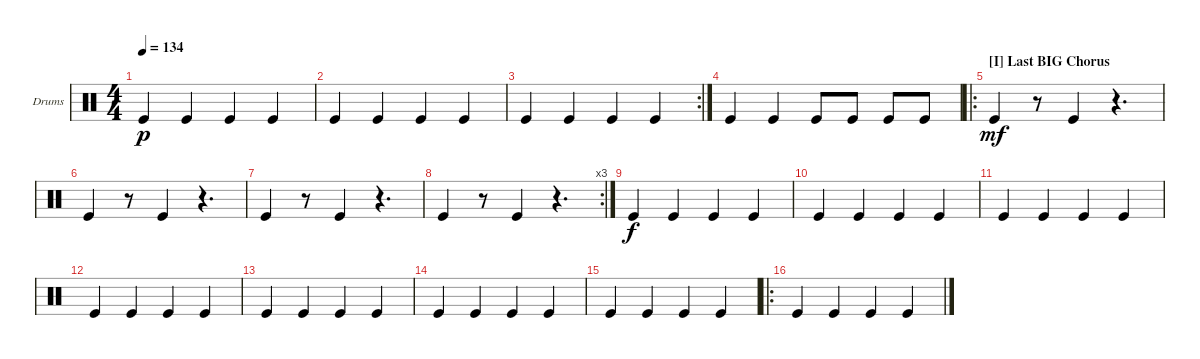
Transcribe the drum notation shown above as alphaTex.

\defaultSystemsLayout 4
\bracketExtendMode groupsimilarinstruments
\firstSystemTrackNameOrientation horizontal
\otherSystemsTrackNameOrientation horizontal
\track ("Bass Drum" "Drums") {instrument percussion}
\staff {score}
\articulation defaults
\ts (4 4)
\tempo 134
\clef neutral
\ks c "Kick (hit)".4{dy p} "Kick (hit)".4 "Kick (hit)".4 "Kick (hit)".4
|
"Kick (hit)".4 "Kick (hit)".4 "Kick (hit)".4 "Kick (hit)".4 |
\rc 2 "Kick (hit)".4 "Kick (hit)".4 "Kick (hit)".4 "Kick (hit)".4
|
"Kick (hit)".4 "Kick (hit)".4 "Kick (hit)".8 "Kick (hit)".8 "Kick (hit)".8 "Kick (hit)".8 |
\ro
\section ("I" "Last BIG Chorus")
"Kick (hit)".4{dy mf} r.8 "Kick (hit)".4 r.4{d} |
"Kick (hit)".4 r.8 "Kick (hit)".4 r.4{d} |
"Kick (hit)".4 r.8 "Kick (hit)".4 r.4{d} |
\rc 3 "Kick (hit)".4
r.8 "Kick (hit)".4 r.4{d} |
"Kick (hit)".4{dy f} "Kick (hit)".4 "Kick (hit)".4 "Kick (hit)".4 |
"Kick (hit)".4 "Kick (hit)".4 "Kick (hit)".4 "Kick (hit)".4 |
"Kick (hit)".4 "Kick (hit)".4 "Kick (hit)".4 "Kick (hit)".4 |
"Kick (hit)".4 "Kick (hit)".4 "Kick (hit)".4 "Kick (hit)".4 |
"Kick (hit)".4 "Kick (hit)".4 "Kick (hit)".4 "Kick (hit)".4 |
"Kick (hit)".4 "Kick (hit)".4 "Kick (hit)".4 "Kick (hit)".4 |
"Kick (hit)".4 "Kick (hit)".4 "Kick (hit)".4 "Kick (hit)".4 |
\ro "Kick (hit)".4 "Kick (hit)".4 "Kick (hit)".4 "Kick (hit)".4
